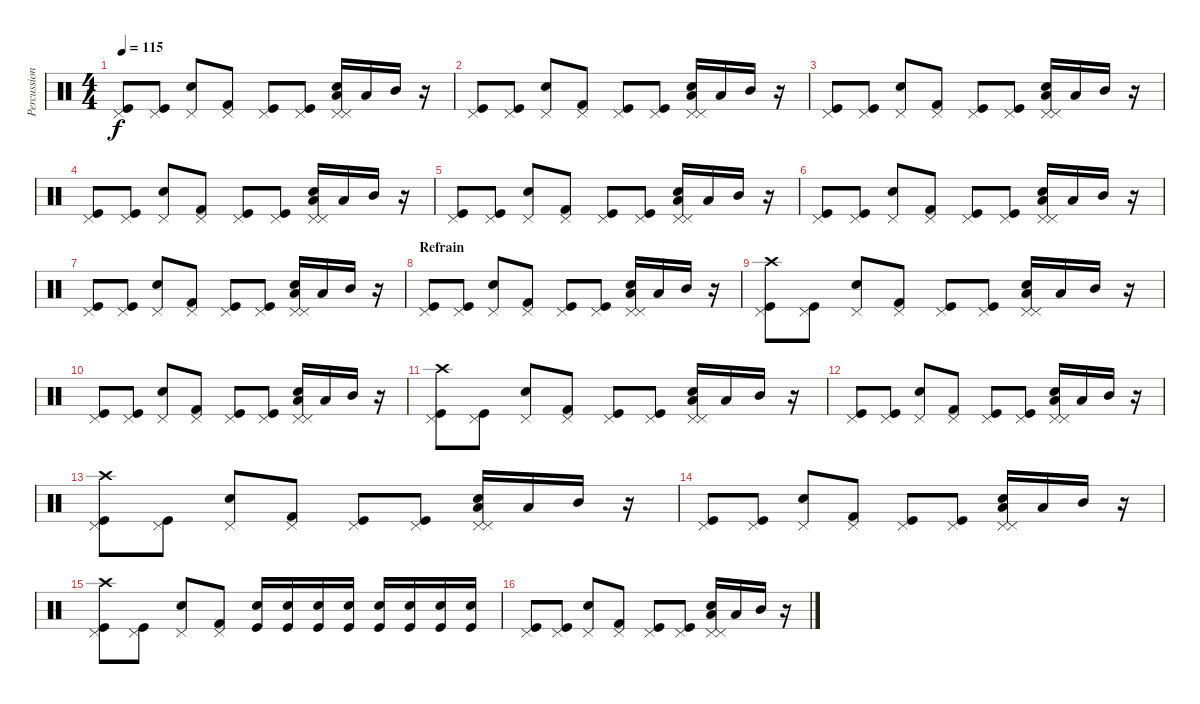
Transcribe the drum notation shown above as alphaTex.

\track ("Percussions" "Percussion") {instrument percussion}
\staff {score}
\articulation defaults
\ts (4 4)
\tempo 115
\clef neutral
\ks c
("Kick (hit)" "Pedal Hi-Hat (hit)").8{dy f} ("Kick (hit)" "Pedal Hi-Hat (hit)").8 ("Snare (hit) 2" "Pedal Hi-Hat (hit)").8 ("Kick (hit) 2" "Pedal Hi-Hat (hit)").8 ("Kick (hit)" "Pedal Hi-Hat (hit)").8 ("Kick (hit)" "Pedal Hi-Hat (hit)").8 ("Snare (hit) 2" "Pedal Hi-Hat (hit)" "Low Tom (hit)" "Pedal Hi-Hat (hit)").16 "Low Tom (hit)".16 "Mid Tom (hit)".16 r.16 |
("Kick (hit)" "Pedal Hi-Hat (hit)").8{volume 16} ("Kick (hit)" "Pedal Hi-Hat (hit)").8 ("Snare (hit) 2" "Pedal Hi-Hat (hit)").8 ("Kick (hit) 2" "Pedal Hi-Hat (hit)").8 ("Kick (hit)" "Pedal Hi-Hat (hit)").8 ("Kick (hit)" "Pedal Hi-Hat (hit)").8 ("Snare (hit) 2" "Pedal Hi-Hat (hit)" "Low Tom (hit)" "Pedal Hi-Hat (hit)").16 "Low Tom (hit)".16 "Mid Tom (hit)".16 r.16 |
("Kick (hit)" "Pedal Hi-Hat (hit)").8 ("Kick (hit)" "Pedal Hi-Hat (hit)").8 ("Snare (hit) 2" "Pedal Hi-Hat (hit)").8 ("Kick (hit) 2" "Pedal Hi-Hat (hit)").8 ("Kick (hit)" "Pedal Hi-Hat (hit)").8 ("Kick (hit)" "Pedal Hi-Hat (hit)").8 ("Snare (hit) 2" "Pedal Hi-Hat (hit)" "Low Tom (hit)" "Pedal Hi-Hat (hit)").16 "Low Tom (hit)".16 "Mid Tom (hit)".16 r.16 |
("Kick (hit)" "Pedal Hi-Hat (hit)").8{volume 16} ("Kick (hit)" "Pedal Hi-Hat (hit)").8 ("Snare (hit) 2" "Pedal Hi-Hat (hit)").8 ("Kick (hit) 2" "Pedal Hi-Hat (hit)").8 ("Kick (hit)" "Pedal Hi-Hat (hit)").8 ("Kick (hit)" "Pedal Hi-Hat (hit)").8 ("Snare (hit) 2" "Pedal Hi-Hat (hit)" "Low Tom (hit)" "Pedal Hi-Hat (hit)").16 "Low Tom (hit)".16 "Mid Tom (hit)".16 r.16 |
("Kick (hit)" "Pedal Hi-Hat (hit)").8 ("Kick (hit)" "Pedal Hi-Hat (hit)").8 ("Snare (hit) 2" "Pedal Hi-Hat (hit)").8 ("Kick (hit) 2" "Pedal Hi-Hat (hit)").8 ("Kick (hit)" "Pedal Hi-Hat (hit)").8 ("Kick (hit)" "Pedal Hi-Hat (hit)").8 ("Snare (hit) 2" "Pedal Hi-Hat (hit)" "Low Tom (hit)" "Pedal Hi-Hat (hit)").16 "Low Tom (hit)".16 "Mid Tom (hit)".16 r.16 |
("Kick (hit)" "Pedal Hi-Hat (hit)").8{volume 16} ("Kick (hit)" "Pedal Hi-Hat (hit)").8 ("Snare (hit) 2" "Pedal Hi-Hat (hit)").8 ("Kick (hit) 2" "Pedal Hi-Hat (hit)").8 ("Kick (hit)" "Pedal Hi-Hat (hit)").8 ("Kick (hit)" "Pedal Hi-Hat (hit)").8 ("Snare (hit) 2" "Pedal Hi-Hat (hit)" "Low Tom (hit)" "Pedal Hi-Hat (hit)").16 "Low Tom (hit)".16 "Mid Tom (hit)".16 r.16 |
("Kick (hit)" "Pedal Hi-Hat (hit)").8 ("Kick (hit)" "Pedal Hi-Hat (hit)").8 ("Snare (hit) 2" "Pedal Hi-Hat (hit)").8 ("Kick (hit) 2" "Pedal Hi-Hat (hit)").8 ("Kick (hit)" "Pedal Hi-Hat (hit)").8 ("Kick (hit)" "Pedal Hi-Hat (hit)").8 ("Snare (hit) 2" "Pedal Hi-Hat (hit)" "Low Tom (hit)" "Pedal Hi-Hat (hit)").16 "Low Tom (hit)".16 "Mid Tom (hit)".16 r.16 |
\section ("" "Refrain")
("Kick (hit)" "Pedal Hi-Hat (hit)").8{volume 16} ("Kick (hit)" "Pedal Hi-Hat (hit)").8 ("Snare (hit) 2" "Pedal Hi-Hat (hit)").8 ("Kick (hit) 2" "Pedal Hi-Hat (hit)").8 ("Kick (hit)" "Pedal Hi-Hat (hit)").8 ("Kick (hit)" "Pedal Hi-Hat (hit)").8 ("Snare (hit) 2" "Pedal Hi-Hat (hit)" "Low Tom (hit)" "Pedal Hi-Hat (hit)").16 "Low Tom (hit)".16 "Mid Tom (hit)".16 r.16 |
("Kick (hit)" "Pedal Hi-Hat (hit)" "Crash high (hit)").8 ("Kick (hit)" "Pedal Hi-Hat (hit)").8 ("Snare (hit) 2" "Pedal Hi-Hat (hit)").8 ("Kick (hit) 2" "Pedal Hi-Hat (hit)").8 ("Kick (hit)" "Pedal Hi-Hat (hit)").8 ("Kick (hit)" "Pedal Hi-Hat (hit)").8 ("Snare (hit) 2" "Pedal Hi-Hat (hit)" "Low Tom (hit)" "Pedal Hi-Hat (hit)").16 "Low Tom (hit)".16 "Mid Tom (hit)".16 r.16 |
("Kick (hit)" "Pedal Hi-Hat (hit)").8{volume 16} ("Kick (hit)" "Pedal Hi-Hat (hit)").8 ("Snare (hit) 2" "Pedal Hi-Hat (hit)").8 ("Kick (hit) 2" "Pedal Hi-Hat (hit)").8 ("Kick (hit)" "Pedal Hi-Hat (hit)").8 ("Kick (hit)" "Pedal Hi-Hat (hit)").8 ("Snare (hit) 2" "Pedal Hi-Hat (hit)" "Low Tom (hit)" "Pedal Hi-Hat (hit)").16 "Low Tom (hit)".16 "Mid Tom (hit)".16 r.16 |
("Kick (hit)" "Pedal Hi-Hat (hit)" "Crash high (hit)").8 ("Kick (hit)" "Pedal Hi-Hat (hit)").8 ("Snare (hit) 2" "Pedal Hi-Hat (hit)").8 ("Kick (hit) 2" "Pedal Hi-Hat (hit)").8 ("Kick (hit)" "Pedal Hi-Hat (hit)").8 ("Kick (hit)" "Pedal Hi-Hat (hit)").8 ("Snare (hit) 2" "Pedal Hi-Hat (hit)" "Low Tom (hit)" "Pedal Hi-Hat (hit)").16 "Low Tom (hit)".16 "Mid Tom (hit)".16 r.16 |
("Kick (hit)" "Pedal Hi-Hat (hit)").8{volume 16} ("Kick (hit)" "Pedal Hi-Hat (hit)").8 ("Snare (hit) 2" "Pedal Hi-Hat (hit)").8 ("Kick (hit) 2" "Pedal Hi-Hat (hit)").8 ("Kick (hit)" "Pedal Hi-Hat (hit)").8 ("Kick (hit)" "Pedal Hi-Hat (hit)").8 ("Snare (hit) 2" "Pedal Hi-Hat (hit)" "Low Tom (hit)" "Pedal Hi-Hat (hit)").16 "Low Tom (hit)".16 "Mid Tom (hit)".16 r.16 |
("Kick (hit)" "Pedal Hi-Hat (hit)" "Crash high (hit)").8 ("Kick (hit)" "Pedal Hi-Hat (hit)").8 ("Snare (hit) 2" "Pedal Hi-Hat (hit)").8 ("Kick (hit) 2" "Pedal Hi-Hat (hit)").8 ("Kick (hit)" "Pedal Hi-Hat (hit)").8 ("Kick (hit)" "Pedal Hi-Hat (hit)").8 ("Snare (hit) 2" "Pedal Hi-Hat (hit)" "Low Tom (hit)" "Pedal Hi-Hat (hit)").16 "Low Tom (hit)".16 "Mid Tom (hit)".16 r.16 |
("Kick (hit)" "Pedal Hi-Hat (hit)").8 ("Kick (hit)" "Pedal Hi-Hat (hit)").8 ("Snare (hit) 2" "Pedal Hi-Hat (hit)").8 ("Kick (hit) 2" "Pedal Hi-Hat (hit)").8 ("Kick (hit)" "Pedal Hi-Hat (hit)").8 ("Kick (hit)" "Pedal Hi-Hat (hit)").8 ("Snare (hit) 2" "Pedal Hi-Hat (hit)" "Low Tom (hit)" "Pedal Hi-Hat (hit)").16 "Low Tom (hit)".16 "Mid Tom (hit)".16 r.16 |
("Kick (hit)" "Pedal Hi-Hat (hit)" "Crash high (hit)").8 ("Kick (hit)" "Pedal Hi-Hat (hit)").8 ("Snare (hit) 2" "Pedal Hi-Hat (hit)").8 ("Kick (hit) 2" "Pedal Hi-Hat (hit)").8 ("Kick (hit)" "Electric Snare (hit)").16 ("Kick (hit)" "Electric Snare (hit)").16 ("Kick (hit)" "Electric Snare (hit)").16 ("Kick (hit)" "Electric Snare (hit)").16 ("Kick (hit)" "Electric Snare (hit)").16 ("Kick (hit)" "Electric Snare (hit)").16 ("Kick (hit)" "Electric Snare (hit)").16 ("Kick (hit)" "Electric Snare (hit)").16 |
("Kick (hit)" "Pedal Hi-Hat (hit)").8 ("Kick (hit)" "Pedal Hi-Hat (hit)").8 ("Snare (hit) 2" "Pedal Hi-Hat (hit)").8 ("Kick (hit) 2" "Pedal Hi-Hat (hit)").8 ("Kick (hit)" "Pedal Hi-Hat (hit)").8 ("Kick (hit)" "Pedal Hi-Hat (hit)").8 ("Snare (hit) 2" "Pedal Hi-Hat (hit)" "Low Tom (hit)" "Pedal Hi-Hat (hit)").16 "Low Tom (hit)".16 "Mid Tom (hit)".16 r.16
